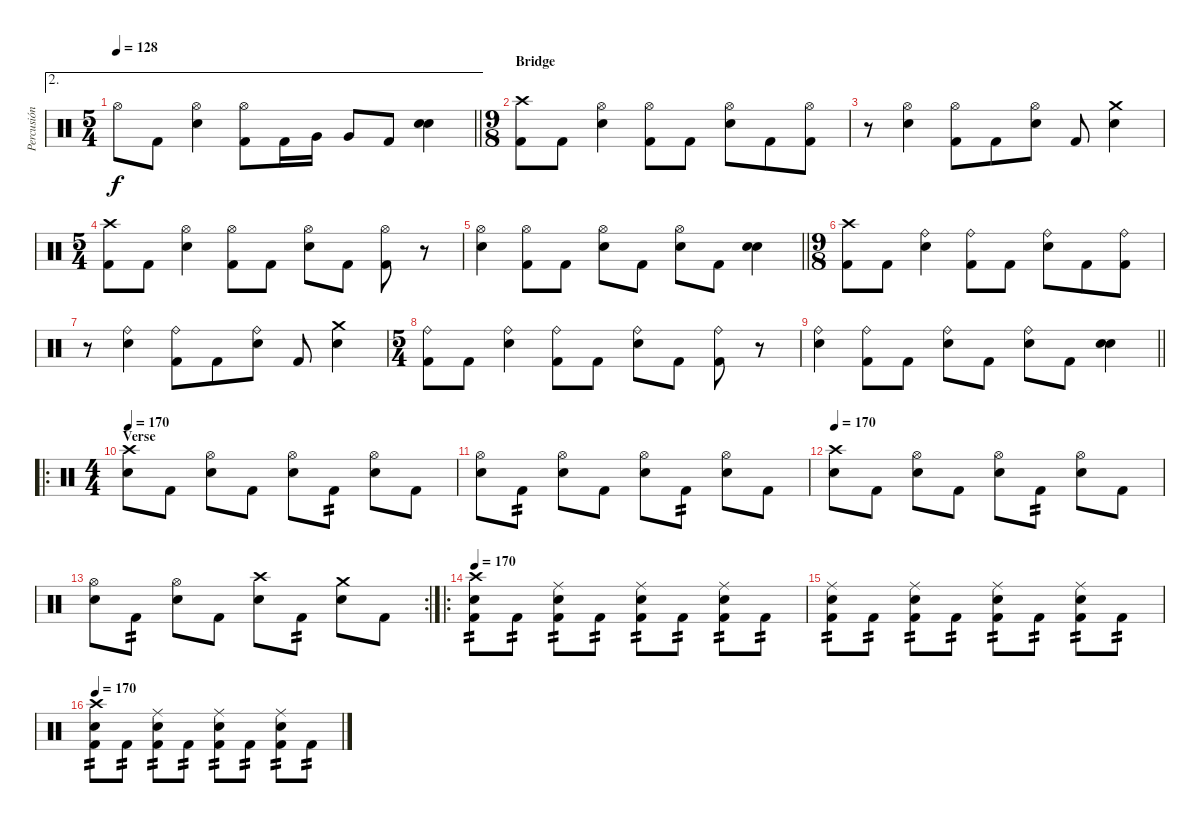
\track ("Percusión" "Percusión") {instrument percussion}
\staff
\articulation defaults
\ae 2
\ts (5 4)
\tempo 128
\clef neutral
\barLineRight lightlight
\ks c "Hi-Hat (open)".8{dy f} "Kick (hit) 2".8
("Electric Snare (hit)" "Hi-Hat (open)").4 ("Kick (hit) 2" "Hi-Hat (open)").8 "Kick (hit) 2".16 "Very Low Tom (hit)".16 "Very Low Tom (hit)".8 "Kick (hit) 2".8 ("Electric Snare (hit)" "Snare (hit) 2").4 |
\ts (9 8)
\section ("" "Bridge")
("Kick (hit) 2" "Crash high (hit)").8 "Kick (hit) 2".8 ("Electric Snare (hit)" "Hi-Hat (open)").4 ("Kick (hit) 2" "Hi-Hat (open)").8 "Kick (hit) 2".8 ("Electric Snare (hit)" "Hi-Hat (open)").8 "Kick (hit) 2".8 ("Kick (hit) 2" "Hi-Hat (open)").8 |
r.8 ("Electric Snare (hit)" "Hi-Hat (open)").4 ("Kick (hit) 2" "Hi-Hat (open)").8 "Kick (hit) 2".8 ("Electric Snare (hit)" "Hi-Hat (open)").8 "Kick (hit) 2".8 ("Electric Snare (hit)" "Crash medium (hit)").4 |
\ts (5 4)
("Kick (hit) 2" "Crash high (hit)").8 "Kick (hit) 2".8 ("Electric Snare (hit)" "Hi-Hat (open)").4 ("Kick (hit) 2" "Hi-Hat (open)").8 "Kick (hit) 2".8 ("Electric Snare (hit)" "Hi-Hat (open)").8 "Kick (hit) 2".8 ("Kick (hit) 2" "Hi-Hat (open)").8 r.8 |
\barLineRight lightlight
("Electric Snare (hit)" "Hi-Hat (open)").4 ("Kick (hit) 2" "Hi-Hat (open)").8 "Kick (hit) 2".8 ("Electric Snare (hit)" "Hi-Hat (open)").8 "Kick (hit) 2".8 ("Electric Snare (hit)" "Hi-Hat (open)").8 "Kick (hit) 2".8 ("Electric Snare (hit)" "Snare (hit) 2").4 |
\ts (9 8)
("Kick (hit) 2" "Crash high (hit)").8 "Kick (hit) 2".8 ("Electric Snare (hit)" "Ride (bell)").4 ("Kick (hit) 2" "Ride (bell)").8 "Kick (hit) 2".8 ("Electric Snare (hit)" "Ride (bell)").8 "Kick (hit) 2".8 ("Kick (hit) 2" "Ride (bell)").8 |
r.8 ("Electric Snare (hit)" "Ride (bell)").4 ("Kick (hit) 2" "Ride (bell)").8 "Kick (hit) 2".8 ("Electric Snare (hit)" "Ride (bell)").8 "Kick (hit) 2".8 ("Electric Snare (hit)" "Crash medium (hit)").4 |
\ts (5 4)
("Kick (hit) 2" "Ride (bell)").8 "Kick (hit) 2".8 ("Electric Snare (hit)" "Ride (bell)").4 ("Kick (hit) 2" "Ride (bell)").8 "Kick (hit) 2".8 ("Electric Snare (hit)" "Ride (bell)").8 "Kick (hit) 2".8 ("Kick (hit) 2" "Ride (bell)").8 r.8 |
\barLineRight lightlight
("Electric Snare (hit)" "Ride (bell)").4 ("Kick (hit) 2" "Ride (bell)").8 "Kick (hit) 2".8 ("Electric Snare (hit)" "Ride (bell)").8 "Kick (hit) 2".8 ("Electric Snare (hit)" "Ride (bell)").8 "Kick (hit) 2".8 ("Electric Snare (hit)" "Snare (hit) 2").4 |
\ro
\ts (4 4)
\section ("" "Verse")
\tempo 170
("Electric Snare (hit)" "Crash high (hit)").8 "Kick (hit) 2".8 ("Electric Snare (hit)" "Hi-Hat (open)").8 "Kick (hit) 2".8 ("Electric Snare (hit)" "Hi-Hat (open)").8 "Kick (hit) 2".8{tp 2} ("Electric Snare (hit)" "Hi-Hat (open)").8 "Kick (hit) 2".8 |
("Electric Snare (hit)" "Hi-Hat (open)").8 "Kick (hit) 2".8{tp 2} ("Electric Snare (hit)" "Hi-Hat (open)").8 "Kick (hit) 2".8 ("Electric Snare (hit)" "Hi-Hat (open)").8 "Kick (hit) 2".8{tp 2} ("Electric Snare (hit)" "Hi-Hat (open)").8 "Kick (hit) 2".8 |
\tempo 170
("Electric Snare (hit)" "Crash high (hit)").8 "Kick (hit) 2".8 ("Electric Snare (hit)" "Hi-Hat (open)").8 "Kick (hit) 2".8 ("Electric Snare (hit)" "Hi-Hat (open)").8 "Kick (hit) 2".8{tp 2} ("Electric Snare (hit)" "Hi-Hat (open)").8 "Kick (hit) 2".8 |
\rc 2
("Electric Snare (hit)" "Hi-Hat (open)").8 "Kick (hit) 2".8{tp 2} ("Electric Snare (hit)" "Hi-Hat (open)").8 "Kick (hit) 2".8 ("Electric Snare (hit)" "Crash high (hit)").8 "Kick (hit) 2".8{tp 2} ("Electric Snare (hit)" "Crash medium (hit)").8 "Kick (hit) 2".8 |
\ro
\tempo 170
("Kick (hit) 2" "Electric Snare (hit)" "Crash high (hit)").8{tp 2} "Kick (hit) 2".8{tp 2} ("Kick (hit) 2" "Electric Snare (hit)" "Ride (middle)").8{tp 2} "Kick (hit) 2".8{tp 2} ("Kick (hit) 2" "Electric Snare (hit)" "Ride (middle)").8{tp 2} "Kick (hit) 2".8{tp 2} ("Kick (hit) 2" "Electric Snare (hit)" "Ride (middle)").8{tp 2} "Kick (hit) 2".8{tp 2} |
("Kick (hit) 2" "Electric Snare (hit)" "Ride (middle)").8{tp 2} "Kick (hit) 2".8{tp 2} ("Kick (hit) 2" "Electric Snare (hit)" "Ride (middle)").8{tp 2} "Kick (hit) 2".8{tp 2} ("Kick (hit) 2" "Electric Snare (hit)" "Ride (middle)").8{tp 2} "Kick (hit) 2".8{tp 2} ("Kick (hit) 2" "Electric Snare (hit)" "Ride (middle)").8{tp 2} "Kick (hit) 2".8{tp 2} |
\tempo 170
("Kick (hit) 2" "Electric Snare (hit)" "Crash high (hit)").8{tp 2} "Kick (hit) 2".8{tp 2} ("Kick (hit) 2" "Electric Snare (hit)" "Ride (middle)").8{tp 2} "Kick (hit) 2".8{tp 2} ("Kick (hit) 2" "Electric Snare (hit)" "Ride (middle)").8{tp 2} "Kick (hit) 2".8{tp 2} ("Kick (hit) 2" "Electric Snare (hit)" "Ride (middle)").8{tp 2} "Kick (hit) 2".8{tp 2}
